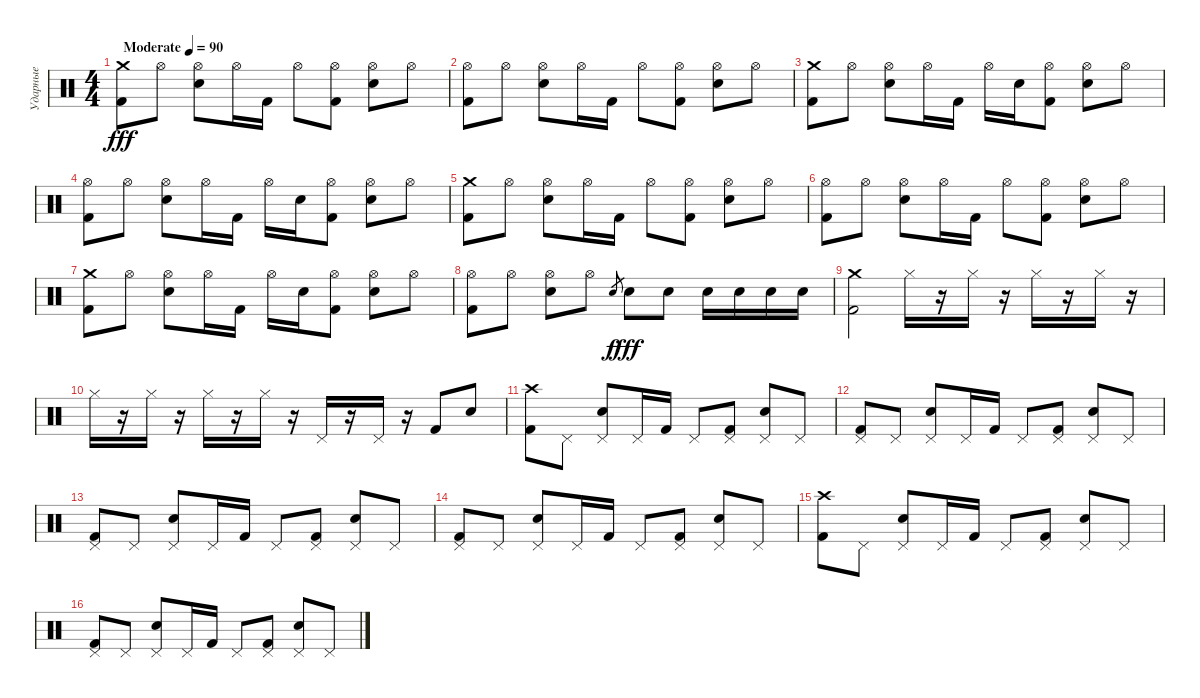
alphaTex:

\track ("Ударные" "Ударные") {instrument percussion}
\staff {score}
\articulation defaults
\ts (4 4)
\tempo (90 "Moderate")
\clef neutral
\ks c
("Crash medium (hit)" "Kick (hit) 2").8{dy fff} "Hi-Hat (open)".8 ("Hi-Hat (open)" "Snare (hit) 2").8 "Hi-Hat (open)".16 "Kick (hit) 2".16 "Hi-Hat (open)".8 ("Hi-Hat (open)" "Kick (hit) 2").8 ("Hi-Hat (open)" "Snare (hit) 2").8 "Hi-Hat (open)".8 |
("Hi-Hat (open)" "Kick (hit) 2").8 "Hi-Hat (open)".8 ("Hi-Hat (open)" "Snare (hit) 2").8 "Hi-Hat (open)".16 "Kick (hit) 2".16 "Hi-Hat (open)".8 ("Hi-Hat (open)" "Kick (hit) 2").8 ("Hi-Hat (open)" "Snare (hit) 2").8 "Hi-Hat (open)".8 |
("Crash medium (hit)" "Kick (hit) 2").8 "Hi-Hat (open)".8 ("Hi-Hat (open)" "Snare (hit) 2").8 "Hi-Hat (open)".16 "Kick (hit) 2".16 "Hi-Hat (open)".16 "Snare (hit) 2".16 ("Hi-Hat (open)" "Kick (hit) 2").8 ("Hi-Hat (open)" "Snare (hit) 2").8 "Hi-Hat (open)".8 |
("Hi-Hat (open)" "Kick (hit) 2").8 "Hi-Hat (open)".8 ("Hi-Hat (open)" "Snare (hit) 2").8 "Hi-Hat (open)".16 "Kick (hit) 2".16 "Hi-Hat (open)".16 "Snare (hit) 2".16 ("Hi-Hat (open)" "Kick (hit) 2").8 ("Hi-Hat (open)" "Snare (hit) 2").8 "Hi-Hat (open)".8 |
("Crash medium (hit)" "Kick (hit) 2").8 "Hi-Hat (open)".8 ("Hi-Hat (open)" "Snare (hit) 2").8 "Hi-Hat (open)".16 "Kick (hit) 2".16 "Hi-Hat (open)".8 ("Hi-Hat (open)" "Kick (hit) 2").8 ("Hi-Hat (open)" "Snare (hit) 2").8 "Hi-Hat (open)".8 |
("Hi-Hat (open)" "Kick (hit) 2").8 "Hi-Hat (open)".8 ("Hi-Hat (open)" "Snare (hit) 2").8 "Hi-Hat (open)".16 "Kick (hit) 2".16 "Hi-Hat (open)".8 ("Hi-Hat (open)" "Kick (hit) 2").8 ("Hi-Hat (open)" "Snare (hit) 2").8 "Hi-Hat (open)".8 |
("Crash medium (hit)" "Kick (hit) 2").8 "Hi-Hat (open)".8 ("Hi-Hat (open)" "Snare (hit) 2").8 "Hi-Hat (open)".16 "Kick (hit) 2".16 "Hi-Hat (open)".16 "Snare (hit) 2".16 ("Hi-Hat (open)" "Kick (hit) 2").8 ("Hi-Hat (open)" "Snare (hit) 2").8 "Hi-Hat (open)".8 |
("Hi-Hat (open)" "Kick (hit) 2").8 "Hi-Hat (open)".8 ("Hi-Hat (open)" "Snare (hit) 2").8 "Hi-Hat (open)".8 "Snare (hit) 2".8{gr dy f} "Snare (hit) 2".8{dy fff} "Snare (hit) 2".8 "Snare (hit) 2".16 "Snare (hit) 2".16 "Snare (hit) 2".16 "Snare (hit) 2".16 |
("Crash medium (hit)" "Kick (hit) 2").2 "Hi-Hat (closed)".16 r.16 "Hi-Hat (closed)".16 r.16 "Hi-Hat (closed)".16 r.16 "Hi-Hat (closed)".16 r.16 |
"Hi-Hat (closed)".16 r.16 "Hi-Hat (closed)".16 r.16 "Hi-Hat (closed)".16 r.16 "Hi-Hat (closed)".16 r.16 "Pedal Hi-Hat (hit)".16 r.16 "Pedal Hi-Hat (hit)".16 r.16 "Kick (hit) 2".8 "Snare (hit) 2".8 |
("Crash high (hit)" "Kick (hit) 2").8 "Pedal Hi-Hat (hit)".8 ("Pedal Hi-Hat (hit)" "Snare (hit) 2").8 "Pedal Hi-Hat (hit)".16 "Kick (hit) 2".16 "Pedal Hi-Hat (hit)".8 ("Pedal Hi-Hat (hit)" "Kick (hit) 2").8 ("Pedal Hi-Hat (hit)" "Snare (hit) 2").8 "Pedal Hi-Hat (hit)".8 |
("Pedal Hi-Hat (hit)" "Kick (hit) 2").8 "Pedal Hi-Hat (hit)".8 ("Pedal Hi-Hat (hit)" "Snare (hit) 2").8 "Pedal Hi-Hat (hit)".16 "Kick (hit) 2".16 "Pedal Hi-Hat (hit)".8 ("Pedal Hi-Hat (hit)" "Kick (hit) 2").8 ("Pedal Hi-Hat (hit)" "Snare (hit) 2").8 "Pedal Hi-Hat (hit)".8 |
("Pedal Hi-Hat (hit)" "Kick (hit) 2").8 "Pedal Hi-Hat (hit)".8 ("Pedal Hi-Hat (hit)" "Snare (hit) 2").8 "Pedal Hi-Hat (hit)".16 "Kick (hit) 2".16 "Pedal Hi-Hat (hit)".8 ("Pedal Hi-Hat (hit)" "Kick (hit) 2").8 ("Pedal Hi-Hat (hit)" "Snare (hit) 2").8 "Pedal Hi-Hat (hit)".8 |
("Pedal Hi-Hat (hit)" "Kick (hit) 2").8 "Pedal Hi-Hat (hit)".8 ("Pedal Hi-Hat (hit)" "Snare (hit) 2").8 "Pedal Hi-Hat (hit)".16 "Kick (hit) 2".16 "Pedal Hi-Hat (hit)".8 ("Pedal Hi-Hat (hit)" "Kick (hit) 2").8 ("Pedal Hi-Hat (hit)" "Snare (hit) 2").8 "Pedal Hi-Hat (hit)".8 |
("Crash high (hit)" "Kick (hit) 2").8 "Pedal Hi-Hat (hit)".8 ("Pedal Hi-Hat (hit)" "Snare (hit) 2").8 "Pedal Hi-Hat (hit)".16 "Kick (hit) 2".16 "Pedal Hi-Hat (hit)".8 ("Pedal Hi-Hat (hit)" "Kick (hit) 2").8 ("Pedal Hi-Hat (hit)" "Snare (hit) 2").8 "Pedal Hi-Hat (hit)".8 |
("Pedal Hi-Hat (hit)" "Kick (hit) 2").8 "Pedal Hi-Hat (hit)".8 ("Pedal Hi-Hat (hit)" "Snare (hit) 2").8 "Pedal Hi-Hat (hit)".16 "Kick (hit) 2".16 "Pedal Hi-Hat (hit)".8 ("Pedal Hi-Hat (hit)" "Kick (hit) 2").8 ("Pedal Hi-Hat (hit)" "Snare (hit) 2").8 "Pedal Hi-Hat (hit)".8
